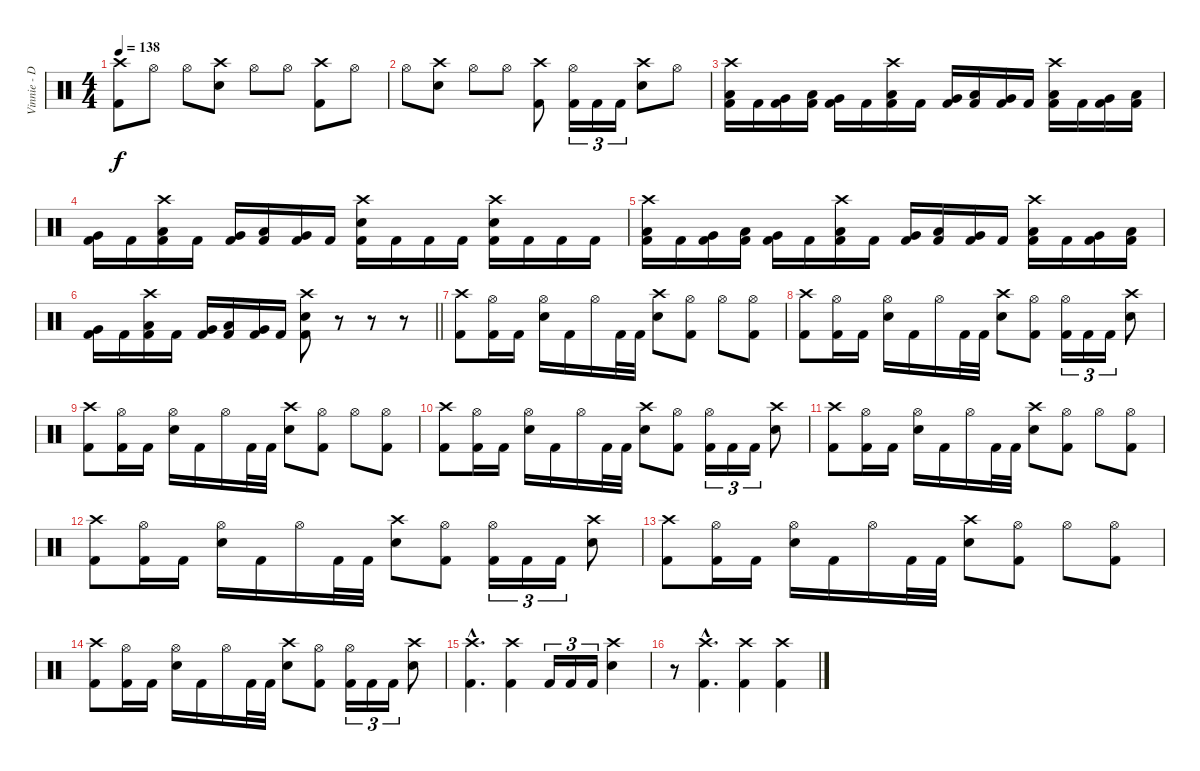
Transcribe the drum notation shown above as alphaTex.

\track ("Vinnie - Drums" "Vinnie - D") {instrument percussion}
\staff {score}
\articulation defaults
\ts (4 4)
\tempo 138
\clef neutral
\ks c
("Crash high (hit)" "Kick (hit) 2").8{dy f} "Hi-Hat (open)".8 "Hi-Hat (open)".8 ("Crash high (hit)" "Snare (hit) 2").8 "Hi-Hat (open)".8 "Hi-Hat (open)".8 ("Crash high (hit)" "Kick (hit) 2").8 "Hi-Hat (open)".8 |
"Hi-Hat (open)".8 ("Crash high (hit)" "Snare (hit) 2").8 "Hi-Hat (open)".8 "Hi-Hat (open)".8 ("Crash high (hit)" "Kick (hit) 2").8 ("Hi-Hat (open)" "Kick (hit) 2").16{tu (3 2)} "Kick (hit) 2".16{tu (3 2)} "Kick (hit) 2".16{tu (3 2)} ("Crash high (hit)" "Snare (hit) 2").8 "Hi-Hat (open)".8 |
("Crash high (hit)" "Low Tom (hit)" "Kick (hit) 2").16 "Kick (hit) 2".16 ("Very Low Tom (hit)" "Kick (hit) 2").16 ("Low Tom (hit)" "Kick (hit) 2").16 ("Very Low Tom (hit)" "Kick (hit) 2").16 "Kick (hit) 2".16 ("Crash high (hit)" "Low Tom (hit)" "Kick (hit) 2").16 "Kick (hit) 2".16 ("Very Low Tom (hit)" "Kick (hit) 2").16 ("Low Tom (hit)" "Kick (hit) 2").16 ("Very Low Tom (hit)" "Kick (hit) 2").16 "Kick (hit) 2".16 ("Crash high (hit)" "Low Tom (hit)" "Kick (hit) 2").16 "Kick (hit) 2".16 ("Very Low Tom (hit)" "Kick (hit) 2").16 ("Low Tom (hit)" "Kick (hit) 2").16 |
("Very Low Tom (hit)" "Kick (hit) 2").16 "Kick (hit) 2".16 ("Crash high (hit)" "Low Tom (hit)" "Kick (hit) 2").16 "Kick (hit) 2".16 ("Very Low Tom (hit)" "Kick (hit) 2").16 ("Low Tom (hit)" "Kick (hit) 2").16 ("Very Low Tom (hit)" "Kick (hit) 2").16 "Kick (hit) 2".16 ("Crash high (hit)" "Snare (hit) 2" "Kick (hit) 2").16 "Kick (hit) 2".16 "Kick (hit) 2".16 "Kick (hit) 2".16 ("Crash high (hit)" "Snare (hit) 2" "Kick (hit) 2").16 "Kick (hit) 2".16 "Kick (hit) 2".16 "Kick (hit) 2".16 |
("Crash high (hit)" "Low Tom (hit)" "Kick (hit) 2").16 "Kick (hit) 2".16 ("Very Low Tom (hit)" "Kick (hit) 2").16 ("Low Tom (hit)" "Kick (hit) 2").16 ("Very Low Tom (hit)" "Kick (hit) 2").16 "Kick (hit) 2".16 ("Crash high (hit)" "Low Tom (hit)" "Kick (hit) 2").16 "Kick (hit) 2".16 ("Very Low Tom (hit)" "Kick (hit) 2").16 ("Low Tom (hit)" "Kick (hit) 2").16 ("Very Low Tom (hit)" "Kick (hit) 2").16 "Kick (hit) 2".16 ("Crash high (hit)" "Low Tom (hit)" "Kick (hit) 2").16 "Kick (hit) 2".16 ("Very Low Tom (hit)" "Kick (hit) 2").16 ("Low Tom (hit)" "Kick (hit) 2").16 |
\barLineRight lightlight
("Very Low Tom (hit)" "Kick (hit) 2").16 "Kick (hit) 2".16 ("Crash high (hit)" "Low Tom (hit)" "Kick (hit) 2").16 "Kick (hit) 2".16 ("Very Low Tom (hit)" "Kick (hit) 2").16 ("Low Tom (hit)" "Kick (hit) 2").16 ("Very Low Tom (hit)" "Kick (hit) 2").16 "Kick (hit) 2".16 ("Crash high (hit)" "Snare (hit) 2" "Kick (hit) 2").8 r.8{volume 0} r.8 r.8{volume 16} |
("Crash high (hit)" "Kick (hit) 2").8 ("Hi-Hat (open)" "Kick (hit) 2").16 "Kick (hit) 2".16 ("Hi-Hat (open)" "Snare (hit) 2").16 "Kick (hit) 2".16 "Hi-Hat (open)".16 "Kick (hit) 2".32 "Kick (hit) 2".32 ("Crash high (hit)" "Snare (hit) 2").8 ("Hi-Hat (open)" "Kick (hit) 2").8 "Hi-Hat (open)".8 ("Hi-Hat (open)" "Kick (hit) 2").8 |
("Crash high (hit)" "Kick (hit) 2").8 ("Hi-Hat (open)" "Kick (hit) 2").16 "Kick (hit) 2".16 ("Hi-Hat (open)" "Snare (hit) 2").16 "Kick (hit) 2".16 "Hi-Hat (open)".16 "Kick (hit) 2".32 "Kick (hit) 2".32 ("Crash high (hit)" "Snare (hit) 2").8 ("Hi-Hat (open)" "Kick (hit) 2").8 ("Hi-Hat (open)" "Kick (hit) 2").16{tu (3 2)} "Kick (hit) 2".16{tu (3 2)} "Kick (hit) 2".16{tu (3 2)} ("Crash high (hit)" "Snare (hit) 2").8 |
("Crash high (hit)" "Kick (hit) 2").8 ("Hi-Hat (open)" "Kick (hit) 2").16 "Kick (hit) 2".16 ("Hi-Hat (open)" "Snare (hit) 2").16 "Kick (hit) 2".16 "Hi-Hat (open)".16 "Kick (hit) 2".32 "Kick (hit) 2".32 ("Crash high (hit)" "Snare (hit) 2").8 ("Hi-Hat (open)" "Kick (hit) 2").8 "Hi-Hat (open)".8 ("Hi-Hat (open)" "Kick (hit) 2").8 |
("Crash high (hit)" "Kick (hit) 2").8 ("Hi-Hat (open)" "Kick (hit) 2").16 "Kick (hit) 2".16 ("Hi-Hat (open)" "Snare (hit) 2").16 "Kick (hit) 2".16 "Hi-Hat (open)".16 "Kick (hit) 2".32 "Kick (hit) 2".32 ("Crash high (hit)" "Snare (hit) 2").8 ("Hi-Hat (open)" "Kick (hit) 2").8 ("Hi-Hat (open)" "Kick (hit) 2").16{tu (3 2)} "Kick (hit) 2".16{tu (3 2)} "Kick (hit) 2".16{tu (3 2)} ("Crash high (hit)" "Snare (hit) 2").8 |
("Crash high (hit)" "Kick (hit) 2").8 ("Hi-Hat (open)" "Kick (hit) 2").16 "Kick (hit) 2".16 ("Hi-Hat (open)" "Snare (hit) 2").16 "Kick (hit) 2".16 "Hi-Hat (open)".16 "Kick (hit) 2".32 "Kick (hit) 2".32 ("Crash high (hit)" "Snare (hit) 2").8 ("Hi-Hat (open)" "Kick (hit) 2").8 "Hi-Hat (open)".8 ("Hi-Hat (open)" "Kick (hit) 2").8 |
("Crash high (hit)" "Kick (hit) 2").8 ("Hi-Hat (open)" "Kick (hit) 2").16 "Kick (hit) 2".16 ("Hi-Hat (open)" "Snare (hit) 2").16 "Kick (hit) 2".16 "Hi-Hat (open)".16 "Kick (hit) 2".32 "Kick (hit) 2".32 ("Crash high (hit)" "Snare (hit) 2").8 ("Hi-Hat (open)" "Kick (hit) 2").8 ("Hi-Hat (open)" "Kick (hit) 2").16{tu (3 2)} "Kick (hit) 2".16{tu (3 2)} "Kick (hit) 2".16{tu (3 2)} ("Crash high (hit)" "Snare (hit) 2").8 |
("Crash high (hit)" "Kick (hit) 2").8 ("Hi-Hat (open)" "Kick (hit) 2").16 "Kick (hit) 2".16 ("Hi-Hat (open)" "Snare (hit) 2").16 "Kick (hit) 2".16 "Hi-Hat (open)".16 "Kick (hit) 2".32 "Kick (hit) 2".32 ("Crash high (hit)" "Snare (hit) 2").8 ("Hi-Hat (open)" "Kick (hit) 2").8 "Hi-Hat (open)".8 ("Hi-Hat (open)" "Kick (hit) 2").8 |
("Crash high (hit)" "Kick (hit) 2").8 ("Hi-Hat (open)" "Kick (hit) 2").16 "Kick (hit) 2".16 ("Hi-Hat (open)" "Snare (hit) 2").16 "Kick (hit) 2".16 "Hi-Hat (open)".16 "Kick (hit) 2".32 "Kick (hit) 2".32 ("Crash high (hit)" "Snare (hit) 2").8 ("Hi-Hat (open)" "Kick (hit) 2").8 ("Hi-Hat (open)" "Kick (hit) 2").16{tu (3 2)} "Kick (hit) 2".16{tu (3 2)} "Kick (hit) 2".16{tu (3 2)} ("Crash high (hit)" "Snare (hit) 2").8 |
("Crash high (hit)"{hac} "Kick (hit) 2"{hac}).4{d} ("Crash high (hit)" "Kick (hit) 2").4 "Kick (hit) 2".16{tu (3 2)} "Kick (hit) 2".16{tu (3 2)} "Kick (hit) 2".16{tu (3 2)} ("Crash high (hit)" "Snare (hit) 2").4 |
r.8 ("Crash high (hit)"{hac} "Kick (hit) 2"{hac}).4{d} ("Crash high (hit)" "Kick (hit) 2").4 ("Crash high (hit)" "Kick (hit) 2").4
